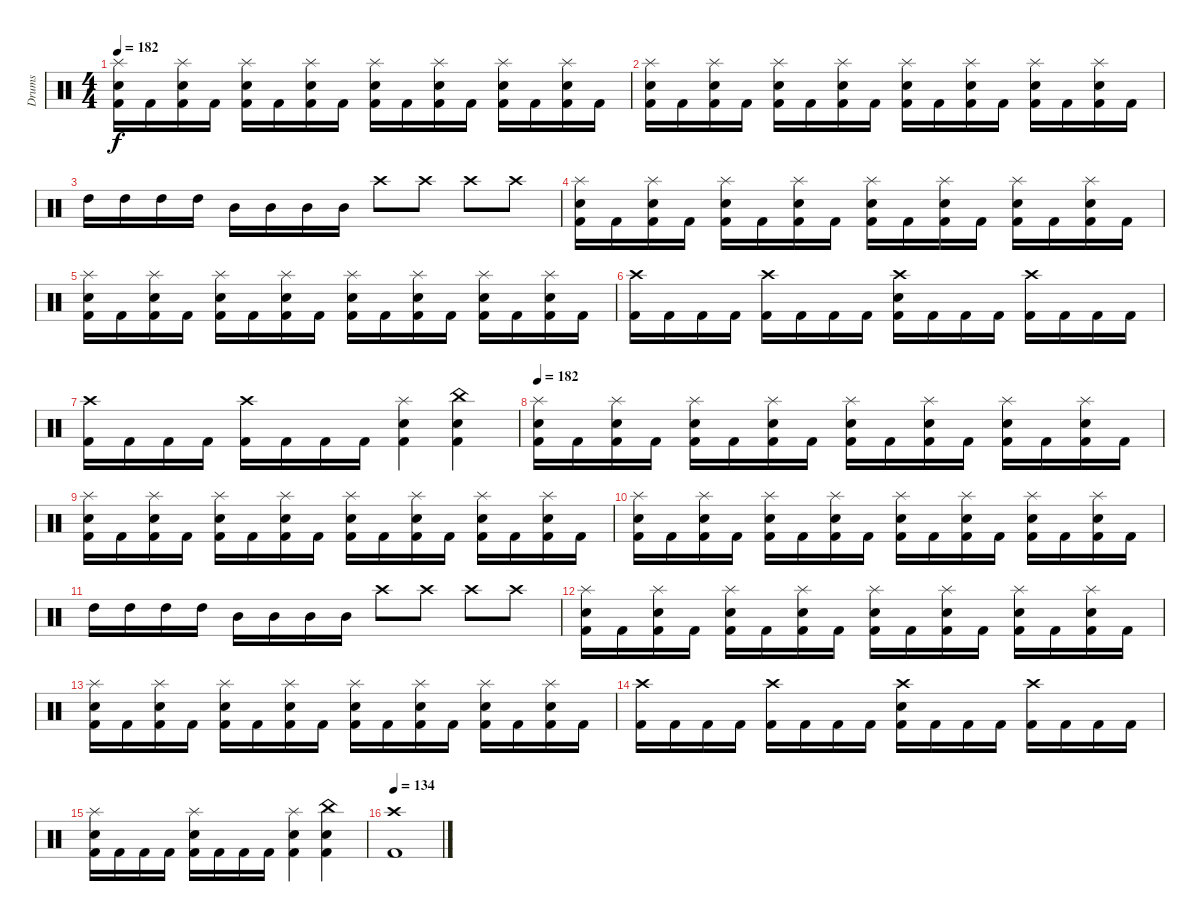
\track ("Drums" "Drums") {instrument percussion}
\staff {score}
\articulation defaults
\ts (4 4)
\tempo 182
\clef neutral
\ks c
("Splash (hit)" "Electric Snare (hit)" "Kick (hit) 2").16{dy f} "Kick (hit) 2".16 ("Splash (hit)" "Electric Snare (hit)" "Kick (hit) 2").16 "Kick (hit) 2".16 ("Splash (hit)" "Electric Snare (hit)" "Kick (hit) 2").16 "Kick (hit) 2".16 ("Splash (hit)" "Electric Snare (hit)" "Kick (hit) 2").16 "Kick (hit) 2".16 ("Splash (hit)" "Electric Snare (hit)" "Kick (hit) 2").16 "Kick (hit) 2".16 ("Splash (hit)" "Electric Snare (hit)" "Kick (hit) 2").16 "Kick (hit) 2".16 ("Splash (hit)" "Electric Snare (hit)" "Kick (hit) 2").16 "Kick (hit) 2".16 ("Splash (hit)" "Electric Snare (hit)" "Kick (hit) 2").16 "Kick (hit) 2".16 |
("Splash (hit)" "Electric Snare (hit)" "Kick (hit) 2").16 "Kick (hit) 2".16 ("Splash (hit)" "Electric Snare (hit)" "Kick (hit) 2").16 "Kick (hit) 2".16 ("Splash (hit)" "Electric Snare (hit)" "Kick (hit) 2").16 "Kick (hit) 2".16 ("Splash (hit)" "Electric Snare (hit)" "Kick (hit) 2").16 "Kick (hit) 2".16 ("Splash (hit)" "Electric Snare (hit)" "Kick (hit) 2").16 "Kick (hit) 2".16 ("Splash (hit)" "Electric Snare (hit)" "Kick (hit) 2").16 "Kick (hit) 2".16 ("Splash (hit)" "Electric Snare (hit)" "Kick (hit) 2").16 "Kick (hit) 2".16 ("Splash (hit)" "Electric Snare (hit)" "Kick (hit) 2").16 "Kick (hit) 2".16 |
"High Tom (hit)".16 "High Tom (hit)".16 "High Tom (hit)".16 "High Tom (hit)".16 "Mid Tom (hit)".16 "Mid Tom (hit)".16 "Mid Tom (hit)".16 "Mid Tom (hit)".16 "Crash high (hit)".8 "Crash high (hit)".8 "Crash high (hit)".8 "Crash high (hit)".8 |
("Splash (hit)" "Electric Snare (hit)" "Kick (hit) 2").16 "Kick (hit) 2".16 ("Splash (hit)" "Electric Snare (hit)" "Kick (hit) 2").16 "Kick (hit) 2".16 ("Splash (hit)" "Electric Snare (hit)" "Kick (hit) 2").16 "Kick (hit) 2".16 ("Splash (hit)" "Electric Snare (hit)" "Kick (hit) 2").16 "Kick (hit) 2".16 ("Splash (hit)" "Electric Snare (hit)" "Kick (hit) 2").16 "Kick (hit) 2".16 ("Splash (hit)" "Electric Snare (hit)" "Kick (hit) 2").16 "Kick (hit) 2".16 ("Splash (hit)" "Electric Snare (hit)" "Kick (hit) 2").16 "Kick (hit) 2".16 ("Splash (hit)" "Electric Snare (hit)" "Kick (hit) 2").16 "Kick (hit) 2".16 |
("Splash (hit)" "Electric Snare (hit)" "Kick (hit) 2").16 "Kick (hit) 2".16 ("Splash (hit)" "Electric Snare (hit)" "Kick (hit) 2").16 "Kick (hit) 2".16 ("Splash (hit)" "Electric Snare (hit)" "Kick (hit) 2").16 "Kick (hit) 2".16 ("Splash (hit)" "Electric Snare (hit)" "Kick (hit) 2").16 "Kick (hit) 2".16 ("Splash (hit)" "Electric Snare (hit)" "Kick (hit) 2").16 "Kick (hit) 2".16 ("Splash (hit)" "Electric Snare (hit)" "Kick (hit) 2").16 "Kick (hit) 2".16 ("Splash (hit)" "Electric Snare (hit)" "Kick (hit) 2").16 "Kick (hit) 2".16 ("Splash (hit)" "Electric Snare (hit)" "Kick (hit) 2").16 "Kick (hit) 2".16 |
("Crash high (hit)" "Kick (hit) 2").16 "Kick (hit) 2".16 "Kick (hit) 2".16 "Kick (hit) 2".16 ("Crash high (hit)" "Kick (hit) 2").16 "Kick (hit) 2".16 "Kick (hit) 2".16 "Kick (hit) 2".16 ("Crash high (hit)" "Electric Snare (hit)" "Kick (hit) 2").16 "Kick (hit) 2".16 "Kick (hit) 2".16 "Kick (hit) 2".16 ("Crash high (hit)" "Kick (hit) 2").16 "Kick (hit) 2".16 "Kick (hit) 2".16 "Kick (hit) 2".16 |
("Crash high (hit)" "Kick (hit) 2").16 "Kick (hit) 2".16 "Kick (hit) 2".16 "Kick (hit) 2".16 ("Crash high (hit)" "Kick (hit) 2").16 "Kick (hit) 2".16 "Kick (hit) 2".16 "Kick (hit) 2".16 ("Splash (hit)" "Electric Snare (hit)" "Kick (hit) 2").4 ("China (hit)" "Electric Snare (hit)" "Kick (hit) 2").4 |
\tempo 182
("Splash (hit)" "Electric Snare (hit)" "Kick (hit) 2").16 "Kick (hit) 2".16 ("Splash (hit)" "Electric Snare (hit)" "Kick (hit) 2").16 "Kick (hit) 2".16 ("Splash (hit)" "Electric Snare (hit)" "Kick (hit) 2").16 "Kick (hit) 2".16 ("Splash (hit)" "Electric Snare (hit)" "Kick (hit) 2").16 "Kick (hit) 2".16 ("Splash (hit)" "Electric Snare (hit)" "Kick (hit) 2").16 "Kick (hit) 2".16 ("Splash (hit)" "Electric Snare (hit)" "Kick (hit) 2").16 "Kick (hit) 2".16 ("Splash (hit)" "Electric Snare (hit)" "Kick (hit) 2").16 "Kick (hit) 2".16 ("Splash (hit)" "Electric Snare (hit)" "Kick (hit) 2").16 "Kick (hit) 2".16 |
("Splash (hit)" "Electric Snare (hit)" "Kick (hit) 2").16 "Kick (hit) 2".16 ("Splash (hit)" "Electric Snare (hit)" "Kick (hit) 2").16 "Kick (hit) 2".16 ("Splash (hit)" "Electric Snare (hit)" "Kick (hit) 2").16 "Kick (hit) 2".16 ("Splash (hit)" "Electric Snare (hit)" "Kick (hit) 2").16 "Kick (hit) 2".16 ("Splash (hit)" "Electric Snare (hit)" "Kick (hit) 2").16 "Kick (hit) 2".16 ("Splash (hit)" "Electric Snare (hit)" "Kick (hit) 2").16 "Kick (hit) 2".16 ("Splash (hit)" "Electric Snare (hit)" "Kick (hit) 2").16 "Kick (hit) 2".16 ("Splash (hit)" "Electric Snare (hit)" "Kick (hit) 2").16 "Kick (hit) 2".16 |
("Splash (hit)" "Electric Snare (hit)" "Kick (hit) 2").16 "Kick (hit) 2".16 ("Splash (hit)" "Electric Snare (hit)" "Kick (hit) 2").16 "Kick (hit) 2".16 ("Splash (hit)" "Electric Snare (hit)" "Kick (hit) 2").16 "Kick (hit) 2".16 ("Splash (hit)" "Electric Snare (hit)" "Kick (hit) 2").16 "Kick (hit) 2".16 ("Splash (hit)" "Electric Snare (hit)" "Kick (hit) 2").16 "Kick (hit) 2".16 ("Splash (hit)" "Electric Snare (hit)" "Kick (hit) 2").16 "Kick (hit) 2".16 ("Splash (hit)" "Electric Snare (hit)" "Kick (hit) 2").16 "Kick (hit) 2".16 ("Splash (hit)" "Electric Snare (hit)" "Kick (hit) 2").16 "Kick (hit) 2".16 |
"High Tom (hit)".16 "High Tom (hit)".16 "High Tom (hit)".16 "High Tom (hit)".16 "Mid Tom (hit)".16 "Mid Tom (hit)".16 "Mid Tom (hit)".16 "Mid Tom (hit)".16 "Crash high (hit)".8 "Crash high (hit)".8 "Crash high (hit)".8 "Crash high (hit)".8 |
("Splash (hit)" "Electric Snare (hit)" "Kick (hit) 2").16 "Kick (hit) 2".16 ("Splash (hit)" "Electric Snare (hit)" "Kick (hit) 2").16 "Kick (hit) 2".16 ("Splash (hit)" "Electric Snare (hit)" "Kick (hit) 2").16 "Kick (hit) 2".16 ("Splash (hit)" "Electric Snare (hit)" "Kick (hit) 2").16 "Kick (hit) 2".16 ("Splash (hit)" "Electric Snare (hit)" "Kick (hit) 2").16 "Kick (hit) 2".16 ("Splash (hit)" "Electric Snare (hit)" "Kick (hit) 2").16 "Kick (hit) 2".16 ("Splash (hit)" "Electric Snare (hit)" "Kick (hit) 2").16 "Kick (hit) 2".16 ("Splash (hit)" "Electric Snare (hit)" "Kick (hit) 2").16 "Kick (hit) 2".16 |
("Splash (hit)" "Electric Snare (hit)" "Kick (hit) 2").16 "Kick (hit) 2".16 ("Splash (hit)" "Electric Snare (hit)" "Kick (hit) 2").16 "Kick (hit) 2".16 ("Splash (hit)" "Electric Snare (hit)" "Kick (hit) 2").16 "Kick (hit) 2".16 ("Splash (hit)" "Electric Snare (hit)" "Kick (hit) 2").16 "Kick (hit) 2".16 ("Splash (hit)" "Electric Snare (hit)" "Kick (hit) 2").16 "Kick (hit) 2".16 ("Splash (hit)" "Electric Snare (hit)" "Kick (hit) 2").16 "Kick (hit) 2".16 ("Splash (hit)" "Electric Snare (hit)" "Kick (hit) 2").16 "Kick (hit) 2".16 ("Splash (hit)" "Electric Snare (hit)" "Kick (hit) 2").16 "Kick (hit) 2".16 |
("Crash high (hit)" "Kick (hit) 2").16 "Kick (hit) 2".16 "Kick (hit) 2".16 "Kick (hit) 2".16 ("Crash high (hit)" "Kick (hit) 2").16 "Kick (hit) 2".16 "Kick (hit) 2".16 "Kick (hit) 2".16 ("Crash high (hit)" "Electric Snare (hit)" "Kick (hit) 2").16 "Kick (hit) 2".16 "Kick (hit) 2".16 "Kick (hit) 2".16 ("Crash high (hit)" "Kick (hit) 2").16 "Kick (hit) 2".16 "Kick (hit) 2".16 "Kick (hit) 2".16 |
("Splash (hit)" "Electric Snare (hit)" "Kick (hit) 2").16 "Kick (hit) 2".16 "Kick (hit) 2".16 "Kick (hit) 2".16 ("Splash (hit)" "Electric Snare (hit)" "Kick (hit) 2").16 "Kick (hit) 2".16 "Kick (hit) 2".16 "Kick (hit) 2".16 ("Splash (hit)" "Electric Snare (hit)" "Kick (hit) 2").4 ("China (hit)" "Electric Snare (hit)" "Kick (hit) 2").4 |
\section ("" "")
\tempo 134
("Crash high (hit)" "Kick (hit) 2").1
